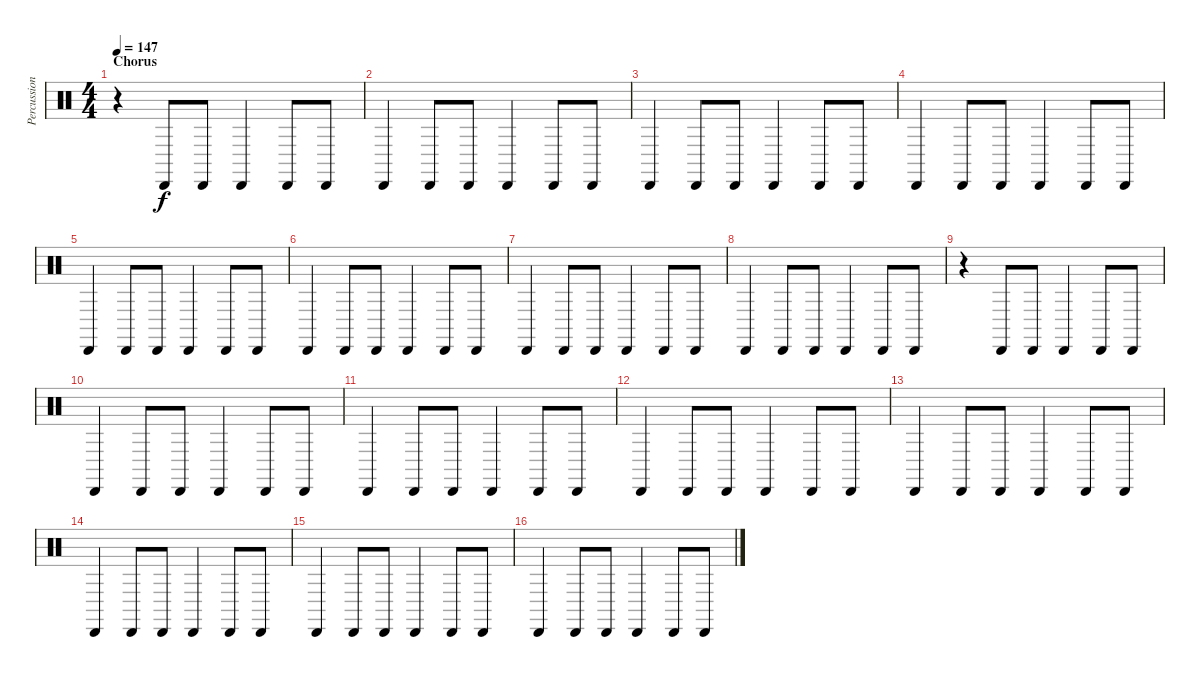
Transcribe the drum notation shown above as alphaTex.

\track ("Percussion (Matt Laug)" "Percussion") {instrument percussion}
\staff {score}
\articulation defaults
\ts (4 4)
\section ("" "Chorus")
\tempo 147
\clef neutral
\ks c
r.4{dy f} "Cabasa (hit)".8 "Cabasa (hit)".8 "Cabasa (hit)".4 "Cabasa (hit)".8 "Cabasa (hit)".8 |
"Cabasa (hit)".4 "Cabasa (hit)".8 "Cabasa (hit)".8 "Cabasa (hit)".4 "Cabasa (hit)".8 "Cabasa (hit)".8 |
"Cabasa (hit)".4 "Cabasa (hit)".8 "Cabasa (hit)".8 "Cabasa (hit)".4 "Cabasa (hit)".8 "Cabasa (hit)".8 |
"Cabasa (hit)".4 "Cabasa (hit)".8 "Cabasa (hit)".8 "Cabasa (hit)".4 "Cabasa (hit)".8 "Cabasa (hit)".8 |
"Cabasa (hit)".4 "Cabasa (hit)".8 "Cabasa (hit)".8 "Cabasa (hit)".4 "Cabasa (hit)".8 "Cabasa (hit)".8 |
"Cabasa (hit)".4 "Cabasa (hit)".8 "Cabasa (hit)".8 "Cabasa (hit)".4 "Cabasa (hit)".8 "Cabasa (hit)".8 |
"Cabasa (hit)".4 "Cabasa (hit)".8 "Cabasa (hit)".8 "Cabasa (hit)".4 "Cabasa (hit)".8 "Cabasa (hit)".8 |
"Cabasa (hit)".4 "Cabasa (hit)".8 "Cabasa (hit)".8 "Cabasa (hit)".4 "Cabasa (hit)".8 "Cabasa (hit)".8 |
r.4 "Cabasa (hit)".8 "Cabasa (hit)".8 "Cabasa (hit)".4 "Cabasa (hit)".8 "Cabasa (hit)".8 |
"Cabasa (hit)".4 "Cabasa (hit)".8 "Cabasa (hit)".8 "Cabasa (hit)".4 "Cabasa (hit)".8 "Cabasa (hit)".8 |
"Cabasa (hit)".4 "Cabasa (hit)".8 "Cabasa (hit)".8 "Cabasa (hit)".4 "Cabasa (hit)".8 "Cabasa (hit)".8 |
"Cabasa (hit)".4 "Cabasa (hit)".8 "Cabasa (hit)".8 "Cabasa (hit)".4 "Cabasa (hit)".8 "Cabasa (hit)".8 |
"Cabasa (hit)".4 "Cabasa (hit)".8 "Cabasa (hit)".8 "Cabasa (hit)".4 "Cabasa (hit)".8 "Cabasa (hit)".8 |
"Cabasa (hit)".4 "Cabasa (hit)".8 "Cabasa (hit)".8 "Cabasa (hit)".4 "Cabasa (hit)".8 "Cabasa (hit)".8 |
"Cabasa (hit)".4 "Cabasa (hit)".8 "Cabasa (hit)".8 "Cabasa (hit)".4 "Cabasa (hit)".8 "Cabasa (hit)".8 |
"Cabasa (hit)".4 "Cabasa (hit)".8 "Cabasa (hit)".8 "Cabasa (hit)".4 "Cabasa (hit)".8 "Cabasa (hit)".8
